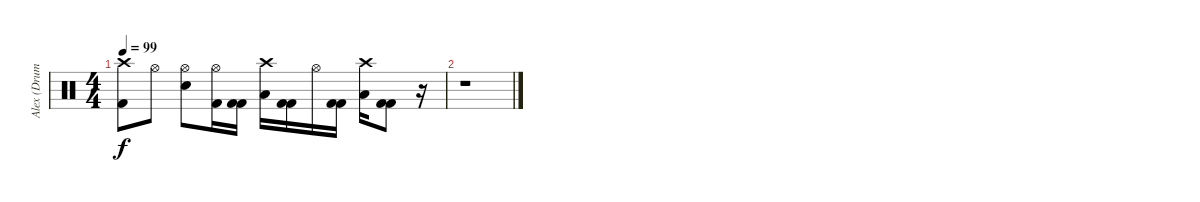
\track ("Alex (Drums)" "Alex (Drum") {instrument percussion}
\staff {score}
\articulation defaults
\ts (4 4)
\tempo 99
\clef neutral
\ks c
("Crash high (hit)" "Kick (hit) 2").8{dy f} "Hi-Hat (open)".8 ("Hi-Hat (open)" "Snare (hit) 2").8 ("Hi-Hat (open)" "Kick (hit) 2").16 ("Kick (hit) 2" "Kick (hit) 2").16 ("Crash high (hit)" "Low Tom (hit)").16 ("Kick (hit) 2" "Kick (hit) 2").16 "Hi-Hat (open)".16 ("Kick (hit) 2" "Kick (hit) 2").16 ("Crash high (hit)" "Low Tom (hit)").16 ("Kick (hit) 2" "Kick (hit) 2").8 r.16 |
r.1
